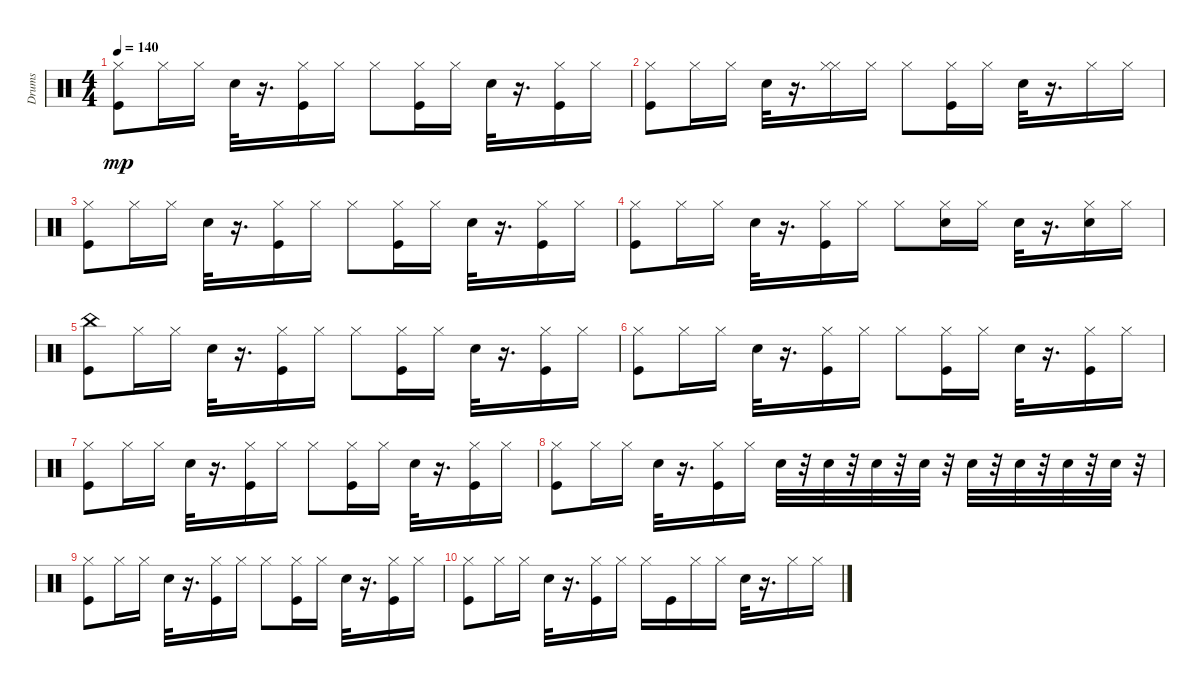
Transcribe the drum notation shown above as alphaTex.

\track ("Drums" "Drums") {instrument percussion}
\staff {score}
\articulation defaults
\ts (4 4)
\tempo 140
\clef neutral
\ks c
("Kick (hit)" "Hi-Hat (closed)").8{dy mp volume 12} "Hi-Hat (closed)".16 "Hi-Hat (closed)".16 "Electric Snare (hit)".32 r.16{d} ("Kick (hit)" "Hi-Hat (closed)").16 "Hi-Hat (closed)".16 "Hi-Hat (closed)".8 ("Kick (hit)" "Hi-Hat (closed)").16 "Hi-Hat (closed)".16 "Electric Snare (hit)".32 r.16{d} ("Kick (hit)" "Hi-Hat (closed)").16 "Hi-Hat (closed)".16 |
("Kick (hit)" "Hi-Hat (closed)").8{volume 12} "Hi-Hat (closed)".16 "Hi-Hat (closed)".16 "Electric Snare (hit)".32 r.16{d} ("Hi-Hat (closed)" "Hi-Hat (closed)").16 "Hi-Hat (closed)".16 "Hi-Hat (closed)".8 ("Kick (hit)" "Hi-Hat (closed)").16 "Hi-Hat (closed)".16 "Electric Snare (hit)".32 r.16{d} "Hi-Hat (closed)".16 "Hi-Hat (closed)".16 |
("Kick (hit)" "Hi-Hat (closed)").8{volume 12} "Hi-Hat (closed)".16 "Hi-Hat (closed)".16 "Electric Snare (hit)".32 r.16{d} ("Kick (hit)" "Hi-Hat (closed)").16 "Hi-Hat (closed)".16 "Hi-Hat (closed)".8 ("Kick (hit)" "Hi-Hat (closed)").16 "Hi-Hat (closed)".16 "Electric Snare (hit)".32 r.16{d} ("Kick (hit)" "Hi-Hat (closed)").16 "Hi-Hat (closed)".16 |
("Kick (hit)" "Hi-Hat (closed)").8{volume 12} "Hi-Hat (closed)".16 "Hi-Hat (closed)".16 "Electric Snare (hit)".32 r.16{d} ("Kick (hit)" "Hi-Hat (closed)").16 "Hi-Hat (closed)".16 "Hi-Hat (closed)".8 ("Snare (hit)" "Hi-Hat (closed)").16 "Hi-Hat (closed)".16 "Electric Snare (hit)".32 r.16{d} ("Electric Snare (hit)" "Hi-Hat (closed)").16 "Hi-Hat (closed)".16 |
("Kick (hit)" "China (hit)").8{volume 12} "Hi-Hat (closed)".16 "Hi-Hat (closed)".16 "Electric Snare (hit)".32 r.16{d} ("Kick (hit)" "Hi-Hat (closed)").16 "Hi-Hat (closed)".16 "Hi-Hat (closed)".8 ("Kick (hit)" "Hi-Hat (closed)").16 "Hi-Hat (closed)".16 "Electric Snare (hit)".32 r.16{d} ("Kick (hit)" "Hi-Hat (closed)").16 "Hi-Hat (closed)".16 |
("Kick (hit)" "Hi-Hat (closed)").8{volume 12} "Hi-Hat (closed)".16 "Hi-Hat (closed)".16 "Electric Snare (hit)".32 r.16{d} ("Kick (hit)" "Hi-Hat (closed)").16 "Hi-Hat (closed)".16 "Hi-Hat (closed)".8 ("Kick (hit)" "Hi-Hat (closed)").16 "Hi-Hat (closed)".16 "Electric Snare (hit)".32 r.16{d} ("Kick (hit)" "Hi-Hat (closed)").16 "Hi-Hat (closed)".16 |
("Kick (hit)" "Hi-Hat (closed)").8{volume 12} "Hi-Hat (closed)".16 "Hi-Hat (closed)".16 "Electric Snare (hit)".32 r.16{d} ("Kick (hit)" "Hi-Hat (closed)").16 "Hi-Hat (closed)".16 "Hi-Hat (closed)".8 ("Kick (hit)" "Hi-Hat (closed)").16 "Hi-Hat (closed)".16 "Electric Snare (hit)".32 r.16{d} ("Kick (hit)" "Hi-Hat (closed)").16 "Hi-Hat (closed)".16 |
("Kick (hit)" "Hi-Hat (closed)").8{volume 12} "Hi-Hat (closed)".16 "Hi-Hat (closed)".16 "Electric Snare (hit)".32 r.16{d} ("Kick (hit)" "Hi-Hat (closed)").16 "Hi-Hat (closed)".16 "Electric Snare (hit)".32 r.32 "Electric Snare (hit)".32 r.32 "Electric Snare (hit)".32 r.32 "Electric Snare (hit)".32 r.32 "Electric Snare (hit)".32 r.32 "Electric Snare (hit)".32 r.32 "Electric Snare (hit)".32 r.32 "Electric Snare (hit)".32 r.32 |
("Kick (hit)" "Hi-Hat (closed)").8{volume 2} "Hi-Hat (closed)".16{volume 2} "Hi-Hat (closed)".16 "Snare (hit)".32{volume 2} r.16{d} ("Kick (hit)" "Hi-Hat (closed)").16{volume 2} "Hi-Hat (closed)".16{volume 2} "Hi-Hat (closed)".8{volume 2} ("Kick (hit)" "Hi-Hat (closed)").16{volume 2} "Hi-Hat (closed)".16 "Snare (hit)".32{volume 2} r.16{d} ("Kick (hit)" "Hi-Hat (closed)").16{volume 2} "Hi-Hat (closed)".16{volume 1} |
("Kick (hit)" "Hi-Hat (closed)").8{volume 1} "Hi-Hat (closed)".16{volume 1} "Hi-Hat (closed)".16 "Snare (hit)".32{volume 1} r.16{d} ("Kick (hit)" "Hi-Hat (closed)").16{volume 1} "Hi-Hat (closed)".16{volume 1} "Hi-Hat (closed)".16{volume 1} "Kick (hit)".16 "Hi-Hat (closed)".16{volume 0} "Hi-Hat (closed)".16 "Snare (hit)".32{volume 0} r.16{d} "Hi-Hat (closed)".16{volume 0} "Hi-Hat (closed)".16{volume 0}
